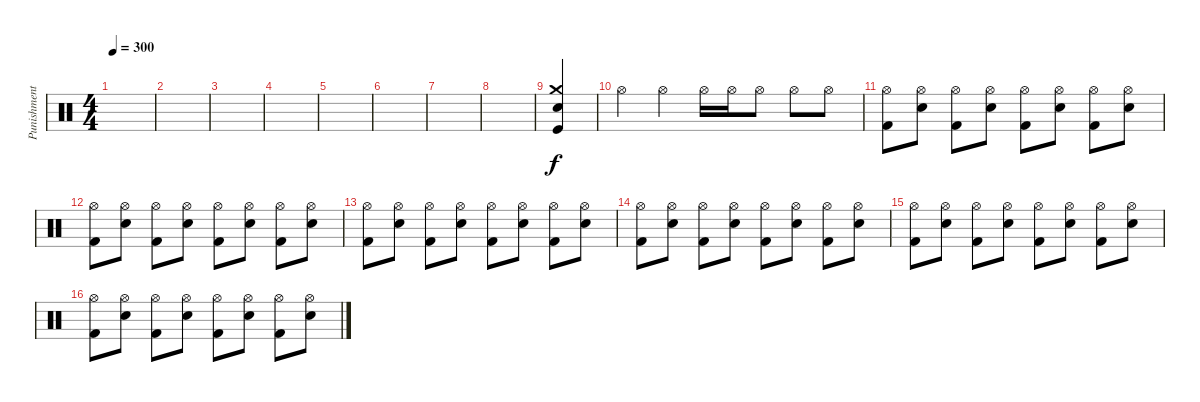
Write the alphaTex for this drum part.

\track ("Punishment" "Punishment") {instrument percussion}
\staff {score}
\articulation defaults
\ts (4 4)
\tempo 300
\clef neutral
\ks c
|
|
|
|
|
|
|
|
("Electric Snare (hit)" "Crash medium (hit)" "Kick (hit)").4 |
"Hi-Hat (open)".4 "Hi-Hat (open)".4 "Hi-Hat (open)".16 "Hi-Hat (open)".16 "Hi-Hat (open)".8 "Hi-Hat (open)".8 "Hi-Hat (open)".8 |
("Kick (hit) 2" "Hi-Hat (open)").8 ("Electric Snare (hit)" "Hi-Hat (open)").8 ("Kick (hit) 2" "Hi-Hat (open)").8 ("Electric Snare (hit)" "Hi-Hat (open)").8 ("Kick (hit) 2" "Hi-Hat (open)").8 ("Electric Snare (hit)" "Hi-Hat (open)").8 ("Kick (hit) 2" "Hi-Hat (open)").8 ("Electric Snare (hit)" "Hi-Hat (open)").8 |
("Kick (hit) 2" "Hi-Hat (open)").8 ("Electric Snare (hit)" "Hi-Hat (open)").8 ("Kick (hit) 2" "Hi-Hat (open)").8 ("Electric Snare (hit)" "Hi-Hat (open)").8 ("Kick (hit) 2" "Hi-Hat (open)").8 ("Electric Snare (hit)" "Hi-Hat (open)").8 ("Kick (hit) 2" "Hi-Hat (open)").8 ("Electric Snare (hit)" "Hi-Hat (open)").8 |
("Kick (hit) 2" "Hi-Hat (open)").8 ("Electric Snare (hit)" "Hi-Hat (open)").8 ("Kick (hit) 2" "Hi-Hat (open)").8 ("Electric Snare (hit)" "Hi-Hat (open)").8 ("Kick (hit) 2" "Hi-Hat (open)").8 ("Electric Snare (hit)" "Hi-Hat (open)").8 ("Kick (hit) 2" "Hi-Hat (open)").8 ("Electric Snare (hit)" "Hi-Hat (open)").8 |
("Kick (hit) 2" "Hi-Hat (open)").8 ("Electric Snare (hit)" "Hi-Hat (open)").8 ("Kick (hit) 2" "Hi-Hat (open)").8 ("Electric Snare (hit)" "Hi-Hat (open)").8 ("Kick (hit) 2" "Hi-Hat (open)").8 ("Electric Snare (hit)" "Hi-Hat (open)").8 ("Kick (hit) 2" "Hi-Hat (open)").8 ("Electric Snare (hit)" "Hi-Hat (open)").8 |
("Kick (hit) 2" "Hi-Hat (open)").8 ("Electric Snare (hit)" "Hi-Hat (open)").8 ("Kick (hit) 2" "Hi-Hat (open)").8 ("Electric Snare (hit)" "Hi-Hat (open)").8 ("Kick (hit) 2" "Hi-Hat (open)").8 ("Electric Snare (hit)" "Hi-Hat (open)").8 ("Kick (hit) 2" "Hi-Hat (open)").8 ("Electric Snare (hit)" "Hi-Hat (open)").8 |
("Kick (hit) 2" "Hi-Hat (open)").8 ("Electric Snare (hit)" "Hi-Hat (open)").8 ("Kick (hit) 2" "Hi-Hat (open)").8 ("Electric Snare (hit)" "Hi-Hat (open)").8 ("Kick (hit) 2" "Hi-Hat (open)").8 ("Electric Snare (hit)" "Hi-Hat (open)").8 ("Kick (hit) 2" "Hi-Hat (open)").8 ("Electric Snare (hit)" "Hi-Hat (open)").8
